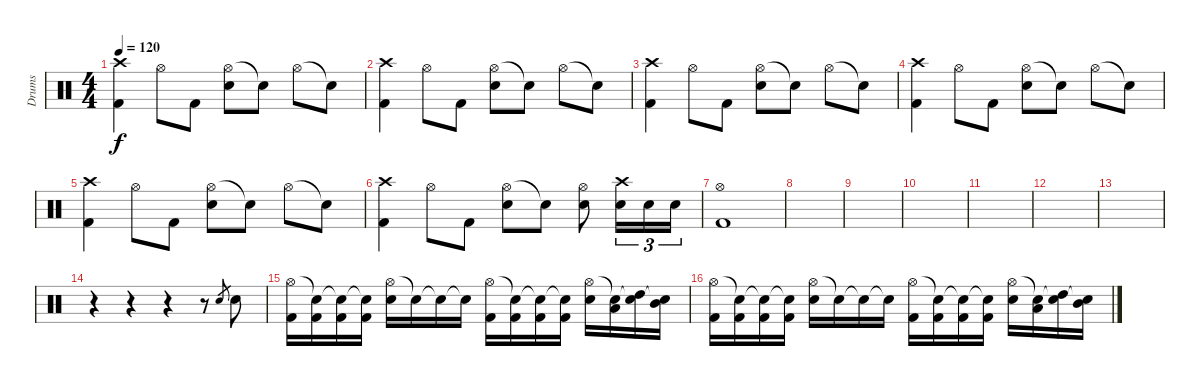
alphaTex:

\track ("Drums" "Drums") {instrument percussion}
\staff {score}
\articulation defaults
\ts (4 4)
\tempo 120
\clef neutral
\ks c
("Crash high (hit)" "Kick (hit) 2").4{dy f} "Hi-Hat (open)".8 "Kick (hit) 2".8 ("Hi-Hat (open)" "Electric Snare (hit)").8 "Snare (hit)"{t}.8 "Hi-Hat (open)".8 "Snare (hit)"{t}.8 |
("Crash high (hit)" "Kick (hit) 2").4 "Hi-Hat (open)".8 "Kick (hit) 2".8 ("Hi-Hat (open)" "Electric Snare (hit)").8 "Snare (hit)"{t}.8 "Hi-Hat (open)".8 "Snare (hit)"{t}.8 |
("Crash high (hit)" "Kick (hit) 2").4 "Hi-Hat (open)".8 "Kick (hit) 2".8 ("Hi-Hat (open)" "Electric Snare (hit)").8 "Snare (hit)"{t}.8 "Hi-Hat (open)".8 "Snare (hit)"{t}.8 |
("Crash high (hit)" "Kick (hit) 2").4 "Hi-Hat (open)".8 "Kick (hit) 2".8 ("Hi-Hat (open)" "Electric Snare (hit)").8 "Snare (hit)"{t}.8 "Hi-Hat (open)".8 "Snare (hit)"{t}.8 |
("Crash high (hit)" "Kick (hit) 2").4 "Hi-Hat (open)".8 "Kick (hit) 2".8 ("Hi-Hat (open)" "Electric Snare (hit)").8 "Snare (hit)"{t}.8 "Hi-Hat (open)".8 "Snare (hit)"{t}.8 |
("Crash high (hit)" "Kick (hit) 2").4 "Hi-Hat (open)".8 "Kick (hit) 2".8 ("Hi-Hat (open)" "Electric Snare (hit)").8 "Snare (hit)"{t}.8 ("Hi-Hat (open)" "Electric Snare (hit)").8 ("Crash high (hit)" "Electric Snare (hit)").16{tu (3 2)} "Electric Snare (hit)".16{tu (3 2)} "Electric Snare (hit)".16{tu (3 2)} |
("Hi-Hat (open)" "Kick (hit) 2").1 |
|
|
|
|
|
|
r.4 r.4 r.4 r.8 "Electric Snare (hit)".8{gr} "Electric Snare (hit)".8 |
("Hi-Hat (open)" "Kick (hit) 2").16 ("Snare (hit)"{t} "Kick (hit) 2").16 ("Snare (hit)"{t} "Kick (hit) 2").16 ("Snare (hit)"{t} "Kick (hit) 2").16 ("Hi-Hat (open)" "Electric Snare (hit)").16 "Snare (hit)"{t}.16 "Snare (hit)"{t}.16 "Snare (hit)"{t}.16 ("Hi-Hat (open)" "Kick (hit) 2").16 ("Snare (hit)"{t} "Kick (hit) 2").16 ("Snare (hit)"{t} "Kick (hit) 2").16 ("Snare (hit)"{t} "Kick (hit) 2").16 ("Hi-Hat (open)" "Electric Snare (hit)").16 ("Snare (hit)"{t} "Low Tom (hit)").16 ("Snare (hit)"{t} "High Tom (hit)").16 ("Snare (hit)"{t} "Mid Tom (hit)").16 |
("Hi-Hat (open)" "Kick (hit) 2").16 ("Snare (hit)"{t} "Kick (hit) 2").16 ("Snare (hit)"{t} "Kick (hit) 2").16 ("Snare (hit)"{t} "Kick (hit) 2").16 ("Hi-Hat (open)" "Electric Snare (hit)").16 "Snare (hit)"{t}.16 "Snare (hit)"{t}.16 "Snare (hit)"{t}.16 ("Hi-Hat (open)" "Kick (hit) 2").16 ("Snare (hit)"{t} "Kick (hit) 2").16 ("Snare (hit)"{t} "Kick (hit) 2").16 ("Snare (hit)"{t} "Kick (hit) 2").16 ("Hi-Hat (open)" "Electric Snare (hit)").16 ("Snare (hit)"{t} "Low Tom (hit)").16 ("Snare (hit)"{t} "High Tom (hit)").16 ("Snare (hit)"{t} "Mid Tom (hit)").16
